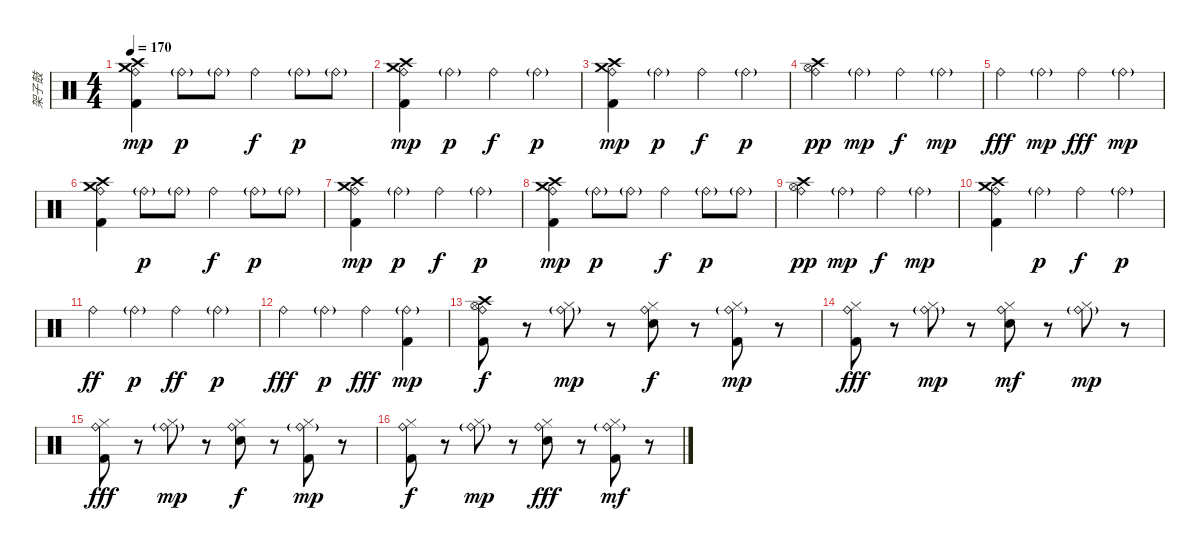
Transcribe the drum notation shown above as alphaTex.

\track ("架子鼓" "架子鼓") {instrument percussion}
\staff {score}
\articulation defaults
\ts (4 4)
\tempo 170
\clef neutral
\ks c
("Ride (bell)" "Kick (hit) 2" "Crash medium (hit)" "Crash high (hit)").4{dy mp} "Ride (bell)"{g}.8{dy p} "Ride (bell)"{g}.8 "Ride (bell)".4{dy f} "Ride (bell)"{g}.8{dy p} "Ride (bell)"{g}.8 |
("Ride (bell)" "Kick (hit) 2" "Crash medium (hit)" "Crash high (hit)").4{dy mp} "Ride (bell)"{g}.4{dy p} "Ride (bell)".4{dy f} "Ride (bell)"{g}.4{dy p} |
("Ride (bell)" "Kick (hit) 2" "Crash medium (hit)" "Crash high (hit)").4{dy mp} "Ride (bell)"{g}.4{dy p} "Ride (bell)".4{dy f} "Ride (bell)"{g}.4{dy p} |
("Ride (bell)" "Hi-Hat (open)" "Crash high (hit)").4{dy pp} "Ride (bell)"{g}.4{dy mp} "Ride (bell)".4{dy f} "Ride (bell)"{g}.4{dy mp} |
"Ride (bell)".4{dy fff} "Ride (bell)"{g}.4{dy mp} "Ride (bell)".4{dy fff} "Ride (bell)"{g}.4{dy mp} |
("Ride (bell)" "Kick (hit) 2" "Crash medium (hit)" "Crash high (hit)").4 "Ride (bell)"{g}.8{dy p} "Ride (bell)"{g}.8 "Ride (bell)".4{dy f} "Ride (bell)"{g}.8{dy p} "Ride (bell)"{g}.8 |
("Ride (bell)" "Kick (hit) 2" "Crash medium (hit)" "Crash high (hit)").4{dy mp} "Ride (bell)"{g}.4{dy p} "Ride (bell)".4{dy f} "Ride (bell)"{g}.4{dy p} |
("Ride (bell)" "Kick (hit) 2" "Crash medium (hit)" "Crash high (hit)").4{dy mp} "Ride (bell)"{g}.8{dy p} "Ride (bell)"{g}.8 "Ride (bell)".4{dy f} "Ride (bell)"{g}.8{dy p} "Ride (bell)"{g}.8 |
("Ride (bell)" "Hi-Hat (open)" "Crash high (hit)").4{dy pp} "Ride (bell)"{g}.4{dy mp} "Ride (bell)".4{dy f} "Ride (bell)"{g}.4{dy mp} |
("Ride (bell)" "Kick (hit) 2" "Crash medium (hit)" "Crash high (hit)").4 "Ride (bell)"{g}.4{dy p} "Ride (bell)".4{dy f} "Ride (bell)"{g}.4{dy p} |
"Ride (bell)".4{dy ff} "Ride (bell)"{g}.4{dy p} "Ride (bell)".4{dy ff} "Ride (bell)"{g}.4{dy p} |
"Ride (bell)".4{dy fff} "Ride (bell)"{g}.4{dy p} "Ride (bell)".4{dy fff} ("Ride (bell)"{g} "Kick (hit) 2").4{dy mp} |
("Crash high (hit)" "Ride (bell)" "Kick (hit) 2" "Hi-Hat (open)").8{dy f} r.8 ("Hi-Hat (closed)" "Ride (bell)"{g}).8{dy mp} r.8 ("Hi-Hat (closed)" "Ride (bell)" "Snare (hit) 2").8{dy f} r.8 ("Hi-Hat (closed)" "Ride (bell)"{g} "Kick (hit) 2").8{dy mp} r.8 |
("Hi-Hat (closed)" "Ride (bell)" "Kick (hit) 2").8{dy fff} r.8 ("Hi-Hat (closed)" "Ride (bell)"{g}).8{dy mp} r.8 ("Hi-Hat (closed)" "Ride (bell)" "Snare (hit) 2").8{dy mf} r.8 ("Hi-Hat (closed)" "Ride (bell)"{g}).8{dy mp} r.8 |
("Hi-Hat (closed)" "Ride (bell)" "Kick (hit) 2").8{dy fff} r.8 ("Hi-Hat (closed)" "Ride (bell)"{g}).8{dy mp} r.8 ("Hi-Hat (closed)" "Ride (bell)" "Snare (hit) 2").8{dy f} r.8 ("Hi-Hat (closed)" "Ride (bell)"{g} "Kick (hit) 2").8{dy mp} r.8 |
("Hi-Hat (closed)" "Ride (bell)" "Kick (hit) 2").8{dy f} r.8 ("Hi-Hat (closed)" "Ride (bell)"{g}).8{dy mp} r.8 ("Hi-Hat (closed)" "Ride (bell)" "Snare (hit) 2").8{dy fff} r.8 ("Hi-Hat (closed)" "Ride (bell)"{g} "Kick (hit) 2").8{dy mf} r.8
